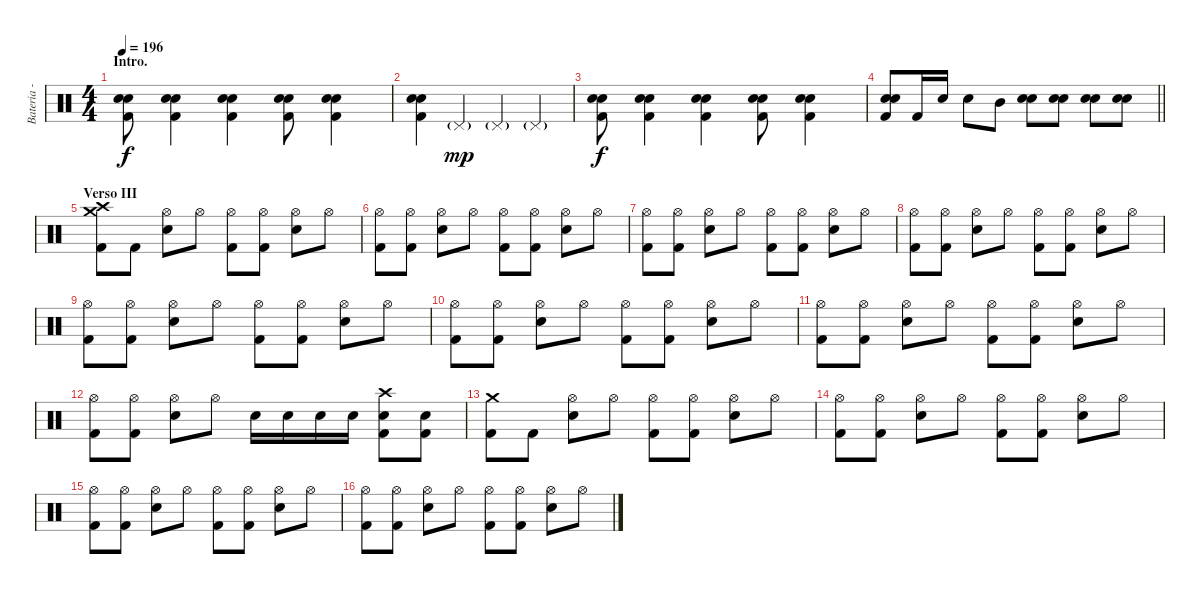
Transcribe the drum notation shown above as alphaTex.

\track ("Bateria - Larzon" "Bateria - ") {instrument percussion}
\staff {score}
\articulation defaults
\ts (4 4)
\section ("" "Intro.")
\tempo 196
\clef neutral
\ks c
("Electric Snare (hit)" "Kick (hit) 2" "Snare (hit) 2").8{dy f} ("Electric Snare (hit)" "Kick (hit) 2" "Snare (hit) 2").4 ("Electric Snare (hit)" "Kick (hit) 2" "Snare (hit) 2").4 ("Electric Snare (hit)" "Kick (hit) 2" "Snare (hit) 2").8 ("Electric Snare (hit)" "Kick (hit) 2" "Snare (hit) 2").4 |
("Electric Snare (hit)" "Kick (hit) 2" "Snare (hit) 2").4 "Pedal Hi-Hat (hit)"{g}.4{dy mp} "Pedal Hi-Hat (hit)"{g}.4 "Pedal Hi-Hat (hit)"{g}.4 |
("Electric Snare (hit)" "Kick (hit) 2" "Snare (hit) 2").8{dy f} ("Electric Snare (hit)" "Kick (hit) 2" "Snare (hit) 2").4 ("Electric Snare (hit)" "Kick (hit) 2" "Snare (hit) 2").4 ("Electric Snare (hit)" "Kick (hit) 2" "Snare (hit) 2").8 ("Electric Snare (hit)" "Kick (hit) 2" "Snare (hit) 2").4 |
\barLineRight lightlight
("Electric Snare (hit)" "Kick (hit) 2" "Snare (hit) 2").8 "Kick (hit) 2".16 "Electric Snare (hit)".16 "Electric Snare (hit)".8 "Mid Tom (hit)".8 ("Electric Snare (hit)" "Snare (hit) 2").8 ("Electric Snare (hit)" "Snare (hit) 2").8 ("Electric Snare (hit)" "Snare (hit) 2").8 ("Electric Snare (hit)" "Snare (hit) 2").8 |
\section ("" "Verso III")
("Kick (hit) 2" "Crash high (hit)" "Crash medium (hit)").8 "Kick (hit) 2".8 ("Snare (hit) 2" "Hi-Hat (open)").8 "Hi-Hat (open)".8 ("Kick (hit) 2" "Hi-Hat (open)").8 ("Kick (hit) 2" "Hi-Hat (open)").8 ("Snare (hit) 2" "Hi-Hat (open)").8 "Hi-Hat (open)".8 |
("Kick (hit) 2" "Hi-Hat (open)").8 ("Kick (hit) 2" "Hi-Hat (open)").8 ("Snare (hit) 2" "Hi-Hat (open)").8 "Hi-Hat (open)".8 ("Kick (hit) 2" "Hi-Hat (open)").8 ("Kick (hit) 2" "Hi-Hat (open)").8 ("Snare (hit) 2" "Hi-Hat (open)").8 "Hi-Hat (open)".8 |
("Kick (hit) 2" "Hi-Hat (open)").8 ("Kick (hit) 2" "Hi-Hat (open)").8 ("Snare (hit) 2" "Hi-Hat (open)").8 "Hi-Hat (open)".8 ("Kick (hit) 2" "Hi-Hat (open)").8 ("Kick (hit) 2" "Hi-Hat (open)").8 ("Snare (hit) 2" "Hi-Hat (open)").8 "Hi-Hat (open)".8 |
("Kick (hit) 2" "Hi-Hat (open)").8 ("Kick (hit) 2" "Hi-Hat (open)").8 ("Snare (hit) 2" "Hi-Hat (open)").8 "Hi-Hat (open)".8 ("Kick (hit) 2" "Hi-Hat (open)").8 ("Kick (hit) 2" "Hi-Hat (open)").8 ("Snare (hit) 2" "Hi-Hat (open)").8 "Hi-Hat (open)".8 |
("Kick (hit) 2" "Hi-Hat (open)").8 ("Kick (hit) 2" "Hi-Hat (open)").8 ("Snare (hit) 2" "Hi-Hat (open)").8 "Hi-Hat (open)".8 ("Kick (hit) 2" "Hi-Hat (open)").8 ("Kick (hit) 2" "Hi-Hat (open)").8 ("Snare (hit) 2" "Hi-Hat (open)").8 "Hi-Hat (open)".8 |
("Kick (hit) 2" "Hi-Hat (open)").8 ("Kick (hit) 2" "Hi-Hat (open)").8 ("Snare (hit) 2" "Hi-Hat (open)").8 "Hi-Hat (open)".8 ("Kick (hit) 2" "Hi-Hat (open)").8 ("Kick (hit) 2" "Hi-Hat (open)").8 ("Snare (hit) 2" "Hi-Hat (open)").8 "Hi-Hat (open)".8 |
("Kick (hit) 2" "Hi-Hat (open)").8 ("Kick (hit) 2" "Hi-Hat (open)").8 ("Snare (hit) 2" "Hi-Hat (open)").8 "Hi-Hat (open)".8 ("Kick (hit) 2" "Hi-Hat (open)").8 ("Kick (hit) 2" "Hi-Hat (open)").8 ("Snare (hit) 2" "Hi-Hat (open)").8 "Hi-Hat (open)".8 |
("Kick (hit) 2" "Hi-Hat (open)").8 ("Kick (hit) 2" "Hi-Hat (open)").8 ("Snare (hit) 2" "Hi-Hat (open)").8 "Hi-Hat (open)".8 "Snare (hit) 2".16 "Snare (hit) 2".16 "Snare (hit) 2".16 "Snare (hit) 2".16 ("Kick (hit) 2" "Snare (hit) 2" "Crash high (hit)").8 ("Kick (hit) 2" "Snare (hit) 2").8 |
("Kick (hit) 2" "Crash medium (hit)").8 "Kick (hit) 2".8 ("Snare (hit) 2" "Hi-Hat (open)").8 "Hi-Hat (open)".8 ("Kick (hit) 2" "Hi-Hat (open)").8 ("Kick (hit) 2" "Hi-Hat (open)").8 ("Snare (hit) 2" "Hi-Hat (open)").8 "Hi-Hat (open)".8 |
("Kick (hit) 2" "Hi-Hat (open)").8 ("Kick (hit) 2" "Hi-Hat (open)").8 ("Snare (hit) 2" "Hi-Hat (open)").8 "Hi-Hat (open)".8 ("Kick (hit) 2" "Hi-Hat (open)").8 ("Kick (hit) 2" "Hi-Hat (open)").8 ("Snare (hit) 2" "Hi-Hat (open)").8 "Hi-Hat (open)".8 |
("Kick (hit) 2" "Hi-Hat (open)").8 ("Kick (hit) 2" "Hi-Hat (open)").8 ("Snare (hit) 2" "Hi-Hat (open)").8 "Hi-Hat (open)".8 ("Kick (hit) 2" "Hi-Hat (open)").8 ("Kick (hit) 2" "Hi-Hat (open)").8 ("Snare (hit) 2" "Hi-Hat (open)").8 "Hi-Hat (open)".8 |
("Kick (hit) 2" "Hi-Hat (open)").8 ("Kick (hit) 2" "Hi-Hat (open)").8 ("Snare (hit) 2" "Hi-Hat (open)").8 "Hi-Hat (open)".8 ("Kick (hit) 2" "Hi-Hat (open)").8 ("Kick (hit) 2" "Hi-Hat (open)").8 ("Snare (hit) 2" "Hi-Hat (open)").8 "Hi-Hat (open)".8
